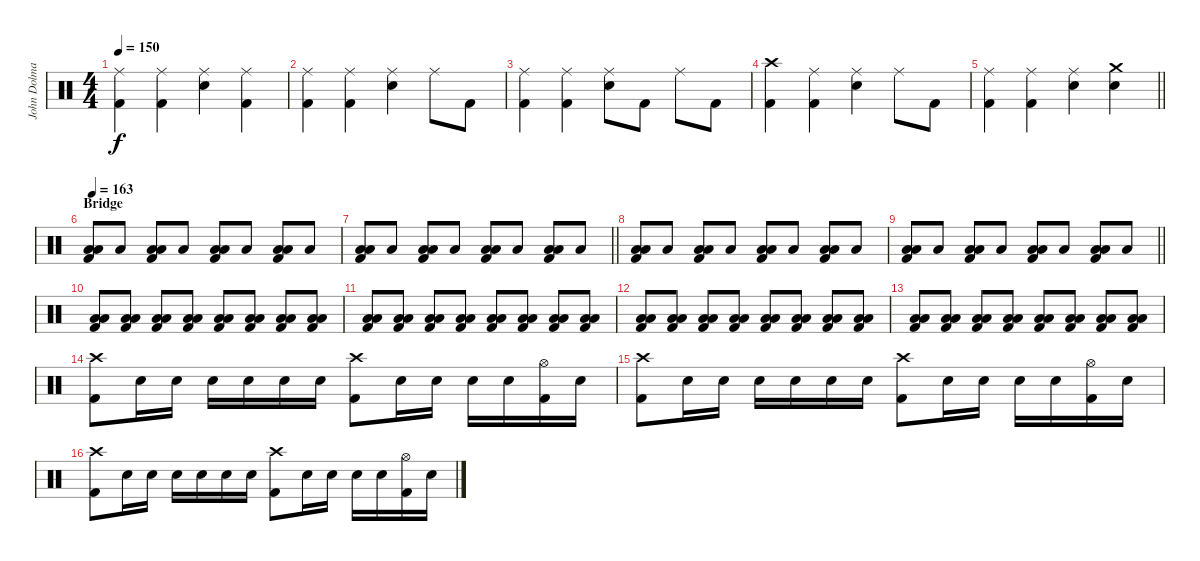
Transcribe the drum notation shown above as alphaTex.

\track ("John Dolmayan(Drums)" "John Dolma") {instrument percussion}
\staff {score}
\articulation defaults
\ts (4 4)
\tempo 150
\clef neutral
\ks c
("Ride (middle)" "Kick (hit) 2").4{dy f} ("Ride (middle)" "Kick (hit) 2").4 ("Ride (middle)" "Snare (hit) 2").4 ("Ride (middle)" "Kick (hit) 2").4 |
("Ride (middle)" "Kick (hit) 2").4 ("Ride (middle)" "Kick (hit) 2").4 ("Ride (middle)" "Snare (hit) 2").4 "Ride (middle)".8 "Kick (hit) 2".8 |
("Ride (middle)" "Kick (hit) 2").4 ("Ride (middle)" "Kick (hit) 2").4 ("Ride (middle)" "Snare (hit) 2").8 "Kick (hit) 2".8 "Ride (middle)".8 "Kick (hit) 2".8 |
("Crash high (hit)" "Kick (hit) 2").4 ("Ride (middle)" "Kick (hit) 2").4 ("Ride (middle)" "Snare (hit) 2").4 "Ride (middle)".8 "Kick (hit) 2".8 |
\barLineRight lightlight
("Ride (middle)" "Kick (hit) 2").4 ("Ride (middle)" "Kick (hit) 2").4 ("Ride (middle)" "Snare (hit) 2").4 ("Crash medium (hit)" "Snare (hit) 2").4 |
\section ("" "Bridge")
\tempo 163
("Low Tom (hit)" "Low Floor Tom (hit)" "Kick (hit) 2").8 "Low Floor Tom (hit)".8 ("Low Tom (hit)" "Low Floor Tom (hit)" "Kick (hit) 2").8 "Low Floor Tom (hit)".8 ("Low Tom (hit)" "Low Floor Tom (hit)" "Kick (hit) 2").8 "Low Floor Tom (hit)".8 ("Low Tom (hit)" "Low Floor Tom (hit)" "Kick (hit) 2").8 "Low Floor Tom (hit)".8 |
\barLineRight lightlight
("Low Tom (hit)" "Low Floor Tom (hit)" "Kick (hit) 2").8 "Low Floor Tom (hit)".8 ("Low Tom (hit)" "Low Floor Tom (hit)" "Kick (hit) 2").8 "Low Floor Tom (hit)".8 ("Low Tom (hit)" "Low Floor Tom (hit)" "Kick (hit) 2").8 "Low Floor Tom (hit)".8 ("Low Tom (hit)" "Low Floor Tom (hit)" "Kick (hit) 2").8 "Low Floor Tom (hit)".8 |
("Low Tom (hit)" "Low Floor Tom (hit)" "Kick (hit) 2").8 "Low Floor Tom (hit)".8 ("Low Tom (hit)" "Low Floor Tom (hit)" "Kick (hit) 2").8 "Low Floor Tom (hit)".8 ("Low Tom (hit)" "Low Floor Tom (hit)" "Kick (hit) 2").8 "Low Floor Tom (hit)".8 ("Low Tom (hit)" "Low Floor Tom (hit)" "Kick (hit) 2").8 "Low Floor Tom (hit)".8 |
\barLineRight lightlight
("Low Tom (hit)" "Low Floor Tom (hit)" "Kick (hit) 2").8 "Low Floor Tom (hit)".8 ("Low Tom (hit)" "Low Floor Tom (hit)" "Kick (hit) 2").8 "Low Floor Tom (hit)".8 ("Low Tom (hit)" "Low Floor Tom (hit)" "Kick (hit) 2").8 "Low Floor Tom (hit)".8 ("Low Tom (hit)" "Low Floor Tom (hit)" "Kick (hit) 2").8 "Low Floor Tom (hit)".8 |
("Low Tom (hit)" "Low Floor Tom (hit)" "Kick (hit) 2").8 ("Low Tom (hit)" "Low Floor Tom (hit)" "Kick (hit) 2").8 ("Low Tom (hit)" "Low Floor Tom (hit)" "Kick (hit) 2").8 ("Low Tom (hit)" "Low Floor Tom (hit)" "Kick (hit) 2").8 ("Low Tom (hit)" "Low Floor Tom (hit)" "Kick (hit) 2").8 ("Low Tom (hit)" "Low Floor Tom (hit)" "Kick (hit) 2").8 ("Low Tom (hit)" "Low Floor Tom (hit)" "Kick (hit) 2").8 ("Low Tom (hit)" "Low Floor Tom (hit)" "Kick (hit) 2").8 |
("Low Tom (hit)" "Low Floor Tom (hit)" "Kick (hit) 2").8 ("Low Tom (hit)" "Low Floor Tom (hit)" "Kick (hit) 2").8 ("Low Tom (hit)" "Low Floor Tom (hit)" "Kick (hit) 2").8 ("Low Tom (hit)" "Low Floor Tom (hit)" "Kick (hit) 2").8 ("Low Tom (hit)" "Low Floor Tom (hit)" "Kick (hit) 2").8 ("Low Tom (hit)" "Low Floor Tom (hit)" "Kick (hit) 2").8 ("Low Tom (hit)" "Low Floor Tom (hit)" "Kick (hit) 2").8 ("Low Tom (hit)" "Low Floor Tom (hit)" "Kick (hit) 2").8 |
("Low Tom (hit)" "Low Floor Tom (hit)" "Kick (hit) 2").8 ("Low Tom (hit)" "Low Floor Tom (hit)" "Kick (hit) 2").8 ("Low Tom (hit)" "Low Floor Tom (hit)" "Kick (hit) 2").8 ("Low Tom (hit)" "Low Floor Tom (hit)" "Kick (hit) 2").8 ("Low Tom (hit)" "Low Floor Tom (hit)" "Kick (hit) 2").8 ("Low Tom (hit)" "Low Floor Tom (hit)" "Kick (hit) 2").8 ("Low Tom (hit)" "Low Floor Tom (hit)" "Kick (hit) 2").8 ("Low Tom (hit)" "Low Floor Tom (hit)" "Kick (hit) 2").8 |
("Low Tom (hit)" "Low Floor Tom (hit)" "Kick (hit) 2").8 ("Low Tom (hit)" "Low Floor Tom (hit)" "Kick (hit) 2").8 ("Low Tom (hit)" "Low Floor Tom (hit)" "Kick (hit) 2").8 ("Low Tom (hit)" "Low Floor Tom (hit)" "Kick (hit) 2").8 ("Low Tom (hit)" "Low Floor Tom (hit)" "Kick (hit) 2").8 ("Low Tom (hit)" "Low Floor Tom (hit)" "Kick (hit) 2").8 ("Low Tom (hit)" "Low Floor Tom (hit)" "Kick (hit) 2").8 ("Low Tom (hit)" "Low Floor Tom (hit)" "Kick (hit) 2").8 |
("Crash high (hit)" "Kick (hit) 2").8 "Snare (hit) 2".16 "Snare (hit) 2".16 "Snare (hit) 2".16 "Snare (hit) 2".16 "Snare (hit) 2".16 "Snare (hit) 2".16 ("Crash high (hit)" "Kick (hit) 2").8 "Snare (hit) 2".16 "Snare (hit) 2".16 "Snare (hit) 2".16 "Snare (hit) 2".16 ("Hi-Hat (open)" "Kick (hit) 2").16 "Snare (hit) 2".16 |
("Crash high (hit)" "Kick (hit) 2").8 "Snare (hit) 2".16 "Snare (hit) 2".16 "Snare (hit) 2".16 "Snare (hit) 2".16 "Snare (hit) 2".16 "Snare (hit) 2".16 ("Crash high (hit)" "Kick (hit) 2").8 "Snare (hit) 2".16 "Snare (hit) 2".16 "Snare (hit) 2".16 "Snare (hit) 2".16 ("Hi-Hat (open)" "Kick (hit) 2").16 "Snare (hit) 2".16 |
("Crash high (hit)" "Kick (hit) 2").8 "Snare (hit) 2".16 "Snare (hit) 2".16 "Snare (hit) 2".16 "Snare (hit) 2".16 "Snare (hit) 2".16 "Snare (hit) 2".16 ("Crash high (hit)" "Kick (hit) 2").8 "Snare (hit) 2".16 "Snare (hit) 2".16 "Snare (hit) 2".16 "Snare (hit) 2".16 ("Hi-Hat (open)" "Kick (hit) 2").16 "Snare (hit) 2".16
